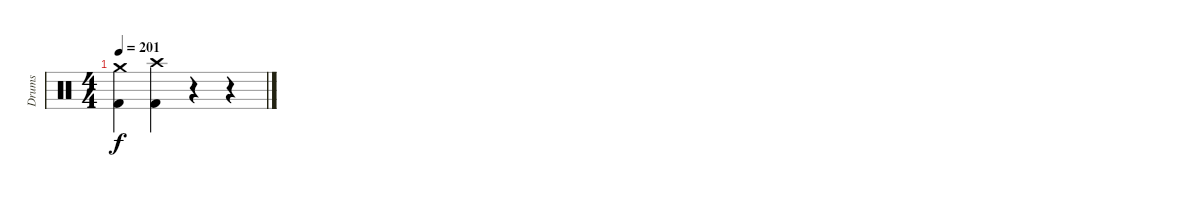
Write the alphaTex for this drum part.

\track ("Drums" "Drums") {instrument percussion}
\staff {score}
\articulation defaults
\ts (4 4)
\tempo 201
\clef neutral
\ks c
("Crash medium (hit)" "Kick (hit) 2").4{dy f} ("Crash high (hit)" "Kick (hit) 2").4 r.4 r.4
